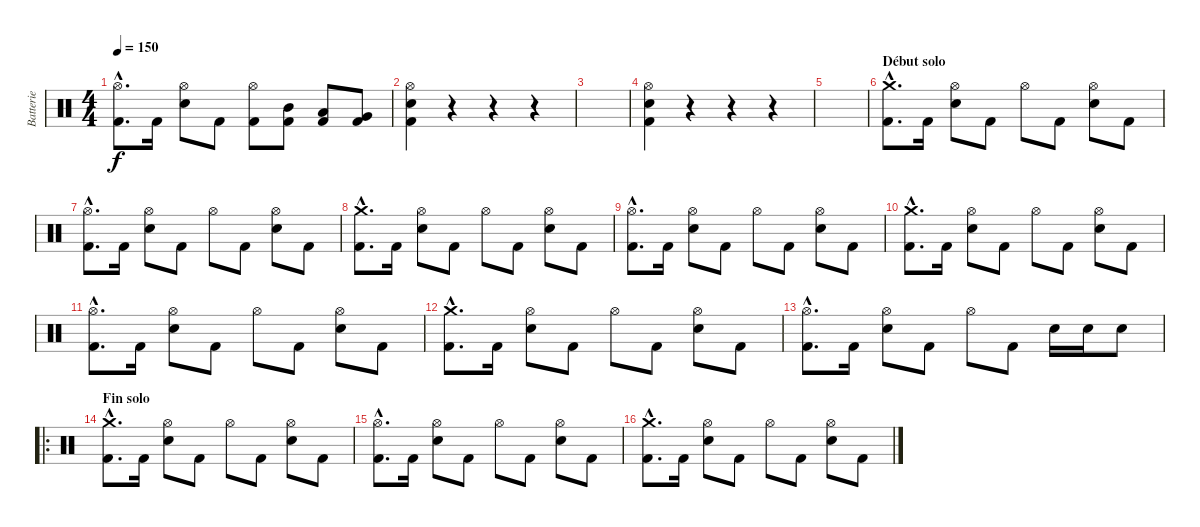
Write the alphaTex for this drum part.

\track ("Batterie" "Batterie") {instrument percussion}
\staff {score}
\articulation defaults
\ts (4 4)
\tempo 150
\clef neutral
\ks c
("Hi-Hat (open)"{hac} "Kick (hit) 2"{hac}).8{d dy f} "Kick (hit) 2".16 ("Hi-Hat (open)" "Electric Snare (hit)").8 "Kick (hit) 2".8 ("Hi-Hat (open)" "Kick (hit) 2").8 ("Mid Tom (hit)" "Kick (hit) 2").8 ("Low Tom (hit)" "Kick (hit) 2").8 ("Very Low Tom (hit)" "Kick (hit) 2").8 |
("Hi-Hat (open)" "Electric Snare (hit)" "Kick (hit) 2").4 r.4 r.4 r.4 |
|
("Hi-Hat (open)" "Electric Snare (hit)" "Kick (hit) 2").4 r.4 r.4 r.4 |
|
\section ("" "Début solo")
("Crash medium (hit)"{hac} "Kick (hit) 2"{hac}).8{d} "Kick (hit) 2".16 ("Hi-Hat (open)" "Electric Snare (hit)").8 "Kick (hit) 2".8 "Hi-Hat (open)".8 "Kick (hit) 2".8 ("Hi-Hat (open)" "Electric Snare (hit)").8 "Kick (hit) 2".8 |
("Hi-Hat (open)"{hac} "Kick (hit) 2"{hac}).8{d} "Kick (hit) 2".16 ("Hi-Hat (open)" "Electric Snare (hit)").8 "Kick (hit) 2".8 "Hi-Hat (open)".8 "Kick (hit) 2".8 ("Hi-Hat (open)" "Electric Snare (hit)").8 "Kick (hit) 2".8 |
("Crash medium (hit)"{hac} "Kick (hit) 2"{hac}).8{d} "Kick (hit) 2".16 ("Hi-Hat (open)" "Electric Snare (hit)").8 "Kick (hit) 2".8 "Hi-Hat (open)".8 "Kick (hit) 2".8 ("Hi-Hat (open)" "Electric Snare (hit)").8 "Kick (hit) 2".8 |
("Hi-Hat (open)"{hac} "Kick (hit) 2"{hac}).8{d} "Kick (hit) 2".16 ("Hi-Hat (open)" "Electric Snare (hit)").8 "Kick (hit) 2".8 "Hi-Hat (open)".8 "Kick (hit) 2".8 ("Hi-Hat (open)" "Electric Snare (hit)").8 "Kick (hit) 2".8 |
("Crash medium (hit)"{hac} "Kick (hit) 2"{hac}).8{d} "Kick (hit) 2".16 ("Hi-Hat (open)" "Electric Snare (hit)").8 "Kick (hit) 2".8 "Hi-Hat (open)".8 "Kick (hit) 2".8 ("Hi-Hat (open)" "Electric Snare (hit)").8 "Kick (hit) 2".8 |
("Hi-Hat (open)"{hac} "Kick (hit) 2"{hac}).8{d} "Kick (hit) 2".16 ("Hi-Hat (open)" "Electric Snare (hit)").8 "Kick (hit) 2".8 "Hi-Hat (open)".8 "Kick (hit) 2".8 ("Hi-Hat (open)" "Electric Snare (hit)").8 "Kick (hit) 2".8 |
("Crash medium (hit)"{hac} "Kick (hit) 2"{hac}).8{d} "Kick (hit) 2".16 ("Hi-Hat (open)" "Electric Snare (hit)").8 "Kick (hit) 2".8 "Hi-Hat (open)".8 "Kick (hit) 2".8 ("Hi-Hat (open)" "Electric Snare (hit)").8 "Kick (hit) 2".8 |
("Hi-Hat (open)"{hac} "Kick (hit) 2"{hac}).8{d} "Kick (hit) 2".16 ("Hi-Hat (open)" "Electric Snare (hit)").8 "Kick (hit) 2".8 "Hi-Hat (open)".8 "Kick (hit) 2".8 "Electric Snare (hit)".16 "Electric Snare (hit)".16 "Electric Snare (hit)".8 |
\ro
\section ("" "Fin solo")
("Crash medium (hit)"{hac} "Kick (hit) 2"{hac}).8{d} "Kick (hit) 2".16 ("Hi-Hat (open)" "Electric Snare (hit)").8 "Kick (hit) 2".8 "Hi-Hat (open)".8 "Kick (hit) 2".8 ("Hi-Hat (open)" "Electric Snare (hit)").8 "Kick (hit) 2".8 |
("Hi-Hat (open)"{hac} "Kick (hit) 2"{hac}).8{d} "Kick (hit) 2".16 ("Hi-Hat (open)" "Electric Snare (hit)").8 "Kick (hit) 2".8 "Hi-Hat (open)".8 "Kick (hit) 2".8 ("Hi-Hat (open)" "Electric Snare (hit)").8 "Kick (hit) 2".8 |
("Crash medium (hit)"{hac} "Kick (hit) 2"{hac}).8{d} "Kick (hit) 2".16 ("Hi-Hat (open)" "Electric Snare (hit)").8 "Kick (hit) 2".8 "Hi-Hat (open)".8 "Kick (hit) 2".8 ("Hi-Hat (open)" "Electric Snare (hit)").8 "Kick (hit) 2".8
